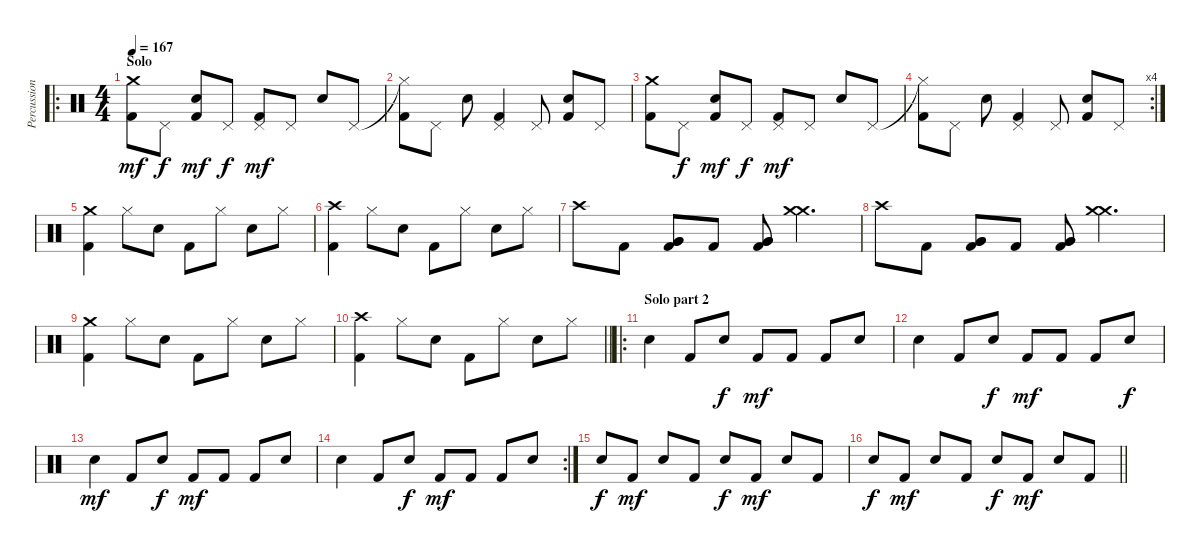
\track ("Percussioni" "Percussion") {instrument percussion}
\staff {score}
\articulation defaults
\ro
\ts (4 4)
\section ("" "Solo")
\tempo 167
\clef neutral
\ks c
("Crash medium (hit)" "Kick (hit) 2").8{dy mf} "Pedal Hi-Hat (hit)".8{dy f} ("Electric Snare (hit)" "Kick (hit) 2").8{dy mf} "Pedal Hi-Hat (hit)".8{dy f} ("Pedal Hi-Hat (hit)" "Kick (hit) 2").8{dy mf} "Pedal Hi-Hat (hit)".8 "Electric Snare (hit)".8 "Pedal Hi-Hat (hit)".8 |
("Hi-Hat (closed)"{t} "Kick (hit) 2").8 "Pedal Hi-Hat (hit)".8 "Electric Snare (hit)".8 ("Pedal Hi-Hat (hit)" "Kick (hit) 2").4 "Pedal Hi-Hat (hit)".8 ("Electric Snare (hit)" "Kick (hit) 2").8 "Pedal Hi-Hat (hit)".8 |
("Crash medium (hit)" "Kick (hit) 2").8 "Pedal Hi-Hat (hit)".8{dy f} ("Electric Snare (hit)" "Kick (hit) 2").8{dy mf} "Pedal Hi-Hat (hit)".8{dy f} ("Pedal Hi-Hat (hit)" "Kick (hit) 2").8{dy mf} "Pedal Hi-Hat (hit)".8 "Electric Snare (hit)".8 "Pedal Hi-Hat (hit)".8 |
\rc 4
("Hi-Hat (closed)"{t} "Kick (hit) 2").8 "Pedal Hi-Hat (hit)".8 "Electric Snare (hit)".8 ("Pedal Hi-Hat (hit)" "Kick (hit) 2").4 "Pedal Hi-Hat (hit)".8 ("Electric Snare (hit)" "Kick (hit) 2").8 "Pedal Hi-Hat (hit)".8 |
("Crash medium (hit)" "Kick (hit) 2").4 "Hi-Hat (closed)".8 "Electric Snare (hit)".8 "Kick (hit) 2".8 "Hi-Hat (closed)".8 "Electric Snare (hit)".8 "Hi-Hat (closed)".8 |
("Crash high (hit)" "Kick (hit) 2").4 "Hi-Hat (closed)".8 "Electric Snare (hit)".8 "Kick (hit) 2".8 "Hi-Hat (closed)".8 "Electric Snare (hit)".8 "Hi-Hat (closed)".8 |
"Crash high (hit)".8 "Kick (hit) 2".8 ("Very Low Tom (hit)" "Very Low Tom (hit)" "Kick (hit) 2").8 "Kick (hit) 2".8 ("Very Low Tom (hit)" "Very Low Tom (hit)" "Kick (hit) 2").8 ("Crash medium (hit)" "Crash medium (hit)").4{d} |
"Crash high (hit)".8 "Kick (hit) 2".8 ("Very Low Tom (hit)" "Very Low Tom (hit)" "Kick (hit) 2").8 "Kick (hit) 2".8 ("Very Low Tom (hit)" "Very Low Tom (hit)" "Kick (hit) 2").8 ("Crash medium (hit)" "Crash medium (hit)").4{d} |
("Crash medium (hit)" "Kick (hit) 2").4 "Hi-Hat (closed)".8 "Electric Snare (hit)".8 "Kick (hit) 2".8 "Hi-Hat (closed)".8 "Electric Snare (hit)".8 "Hi-Hat (closed)".8 |
\barLineRight lightlight
("Crash high (hit)" "Kick (hit) 2").4 "Hi-Hat (closed)".8 "Electric Snare (hit)".8 "Kick (hit) 2".8 "Hi-Hat (closed)".8 "Electric Snare (hit)".8 "Hi-Hat (closed)".8 |
\ro
\section ("" "Solo part 2")
"Snare (hit) 2".4 "Kick (hit) 2".8 "Snare (hit) 2".8{dy f} "Kick (hit) 2".8{dy mf} "Kick (hit) 2".8 "Kick (hit) 2".8 "Snare (hit) 2".8 |
"Snare (hit) 2".4 "Kick (hit) 2".8 "Snare (hit) 2".8{dy f} "Kick (hit) 2".8{dy mf} "Kick (hit) 2".8 "Kick (hit) 2".8 "Snare (hit) 2".8{dy f} |
"Snare (hit) 2".4{dy mf} "Kick (hit) 2".8 "Snare (hit) 2".8{dy f} "Kick (hit) 2".8{dy mf} "Kick (hit) 2".8 "Kick (hit) 2".8 "Snare (hit) 2".8 |
\rc 2 "Snare (hit) 2".4 "Kick (hit) 2".8 "Snare (hit) 2".8{dy f} "Kick (hit) 2".8{dy mf} "Kick (hit) 2".8 "Kick (hit) 2".8 "Snare (hit) 2".8
|
"Electric Snare (hit)".8{dy f} "Kick (hit) 2".8{dy mf} "Electric Snare (hit)".8 "Kick (hit) 2".8 "Electric Snare (hit)".8{dy f} "Kick (hit) 2".8{dy mf} "Electric Snare (hit)".8 "Kick (hit) 2".8 |
\barLineRight lightlight "Electric Snare (hit)".8{dy f} "Kick (hit) 2".8{dy mf} "Electric Snare (hit)".8 "Kick (hit) 2".8 "Electric Snare (hit)".8{dy f} "Kick (hit) 2".8{dy mf} "Electric Snare (hit)".8 "Kick (hit) 2".8
